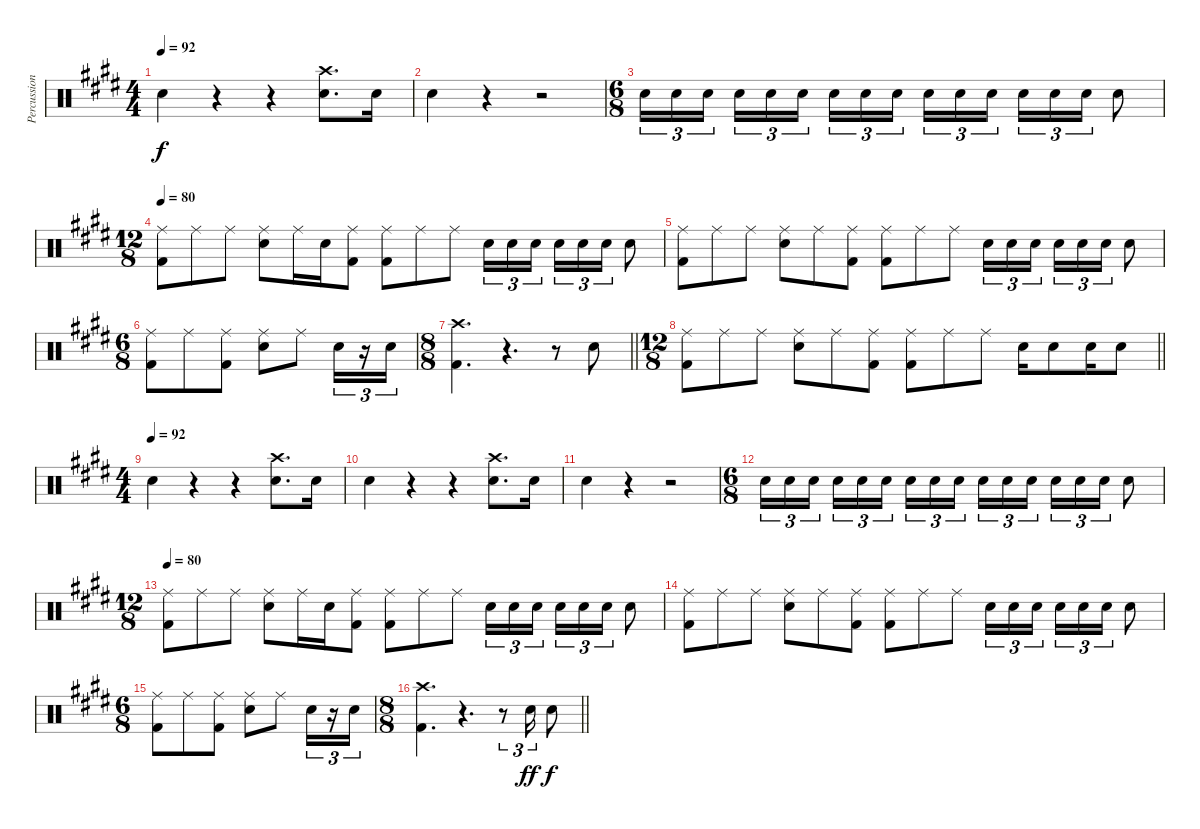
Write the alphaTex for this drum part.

\track ("Percussion" "Percussion") {instrument percussion}
\staff {score}
\articulation defaults
\ts (4 4)
\tempo 92
\clef neutral
\ks e "Snare (hit) 2".4{dy f}
r.4 r.4 ("Crash high (hit)" "Snare (hit) 2").8{d} "Snare (hit) 2".16 |
"Snare (hit) 2".4 r.4 r.2 |
\ts (6 8)
"Snare (hit) 2".16{tu (3 2)} "Snare (hit) 2".16{tu (3 2)} "Snare (hit) 2".16{tu (3 2) beam splitsecondary} "Snare (hit) 2".16{tu (3 2)} "Snare (hit) 2".16{tu (3 2)} "Snare (hit) 2".16{tu (3 2) beam splitsecondary} "Snare (hit) 2".16{tu (3 2)} "Snare (hit) 2".16{tu (3 2)} "Snare (hit) 2".16{tu (3 2)} "Snare (hit) 2".16{tu (3 2)} "Snare (hit) 2".16{tu (3 2)} "Snare (hit) 2".16{tu (3 2) beam splitsecondary} "Snare (hit) 2".16{tu (3 2)} "Snare (hit) 2".16{tu (3 2)} "Snare (hit) 2".16{tu (3 2)} "Snare (hit) 2".8 |
\ts (12 8)
\tempo 80
("Ride (middle)" "Kick (hit) 2").8 "Ride (middle)".8 "Ride (middle)".8 ("Ride (middle)" "Snare (hit) 2").8 "Ride (middle)".16 "Snare (hit) 2".16 ("Ride (middle)" "Kick (hit) 2").8 ("Ride (middle)" "Kick (hit) 2").8 "Ride (middle)".8 "Ride (middle)".8 "Snare (hit) 2".16{tu (3 2)} "Snare (hit) 2".16{tu (3 2)} "Snare (hit) 2".16{tu (3 2) beam splitsecondary} "Snare (hit) 2".16{tu (3 2)} "Snare (hit) 2".16{tu (3 2)} "Snare (hit) 2".16{tu (3 2)} "Snare (hit) 2".8 |
("Ride (middle)" "Kick (hit) 2").8 "Ride (middle)".8 "Ride (middle)".8 ("Ride (middle)" "Snare (hit) 2").8 "Ride (middle)".8 ("Ride (middle)" "Kick (hit) 2").8 ("Ride (middle)" "Kick (hit) 2").8 "Ride (middle)".8 "Ride (middle)".8 "Snare (hit) 2".16{tu (3 2)} "Snare (hit) 2".16{tu (3 2)} "Snare (hit) 2".16{tu (3 2) beam splitsecondary} "Snare (hit) 2".16{tu (3 2)} "Snare (hit) 2".16{tu (3 2)} "Snare (hit) 2".16{tu (3 2)} "Snare (hit) 2".8 |
\ts (6 8)
("Ride (middle)" "Kick (hit) 2").8 "Ride (middle)".8 ("Ride (middle)" "Kick (hit) 2").8 ("Ride (middle)" "Snare (hit) 2").8 "Ride (middle)".8 "Snare (hit) 2".16{tu (3 2)} r.16{tu (3 2)} "Snare (hit) 2".16{tu (3 2)} |
\ts (8 8)
\barLineRight lightlight
("Crash high (hit)" "Kick (hit) 2").4{d} r.4{d} r.8 "Snare (hit) 2".8 |
\ts (12 8)
\barLineRight lightlight
("Ride (middle)" "Kick (hit) 2").8 "Ride (middle)".8 "Ride (middle)".8 ("Ride (middle)" "Snare (hit) 2").8 "Ride (middle)".8 ("Ride (middle)" "Kick (hit) 2").8 ("Ride (middle)" "Kick (hit) 2").8 "Ride (middle)".8 "Ride (middle)".8 "Snare (hit) 2".16 "Snare (hit) 2".8 "Snare (hit) 2".16 "Snare (hit) 2".8 |
\ts (4 4)
\tempo (92)
"Snare (hit) 2".4 r.4 r.4 ("Crash high (hit)" "Snare (hit) 2").8{d} "Snare (hit) 2".16 |
"Snare (hit) 2".4 r.4 r.4 ("Crash high (hit)" "Snare (hit) 2").8{d} "Snare (hit) 2".16 |
"Snare (hit) 2".4 r.4 r.2 |
\ts (6 8)
"Snare (hit) 2".16{tu (3 2)} "Snare (hit) 2".16{tu (3 2)} "Snare (hit) 2".16{tu (3 2) beam splitsecondary} "Snare (hit) 2".16{tu (3 2)} "Snare (hit) 2".16{tu (3 2)} "Snare (hit) 2".16{tu (3 2) beam splitsecondary} "Snare (hit) 2".16{tu (3 2)} "Snare (hit) 2".16{tu (3 2)} "Snare (hit) 2".16{tu (3 2)} "Snare (hit) 2".16{tu (3 2)} "Snare (hit) 2".16{tu (3 2)} "Snare (hit) 2".16{tu (3 2) beam splitsecondary} "Snare (hit) 2".16{tu (3 2)} "Snare (hit) 2".16{tu (3 2)} "Snare (hit) 2".16{tu (3 2)} "Snare (hit) 2".8 |
\ts (12 8)
\tempo 80
("Ride (middle)" "Kick (hit) 2").8 "Ride (middle)".8 "Ride (middle)".8 ("Ride (middle)" "Snare (hit) 2").8 "Ride (middle)".16 "Snare (hit) 2".16 ("Ride (middle)" "Kick (hit) 2").8 ("Ride (middle)" "Kick (hit) 2").8 "Ride (middle)".8 "Ride (middle)".8 "Snare (hit) 2".16{tu (3 2)} "Snare (hit) 2".16{tu (3 2)} "Snare (hit) 2".16{tu (3 2) beam splitsecondary} "Snare (hit) 2".16{tu (3 2)} "Snare (hit) 2".16{tu (3 2)} "Snare (hit) 2".16{tu (3 2)} "Snare (hit) 2".8 |
("Ride (middle)" "Kick (hit) 2").8 "Ride (middle)".8 "Ride (middle)".8 ("Ride (middle)" "Snare (hit) 2").8 "Ride (middle)".8 ("Ride (middle)" "Kick (hit) 2").8 ("Ride (middle)" "Kick (hit) 2").8 "Ride (middle)".8 "Ride (middle)".8 "Snare (hit) 2".16{tu (3 2)} "Snare (hit) 2".16{tu (3 2)} "Snare (hit) 2".16{tu (3 2) beam splitsecondary} "Snare (hit) 2".16{tu (3 2)} "Snare (hit) 2".16{tu (3 2)} "Snare (hit) 2".16{tu (3 2)} "Snare (hit) 2".8 |
\ts (6 8)
("Ride (middle)" "Kick (hit) 2").8 "Ride (middle)".8 ("Ride (middle)" "Kick (hit) 2").8 ("Ride (middle)" "Snare (hit) 2").8 "Ride (middle)".8 "Snare (hit) 2".16{tu (3 2)} r.16{tu (3 2)} "Snare (hit) 2".16{tu (3 2)} |
\ts (8 8)
\barLineRight lightlight
("Crash high (hit)" "Kick (hit) 2").4{d} r.4{d} r.8{tu (3 2)} "Snare (hit) 2".16{tu (3 2) dy ff} "Snare (hit) 2".8{dy f}
